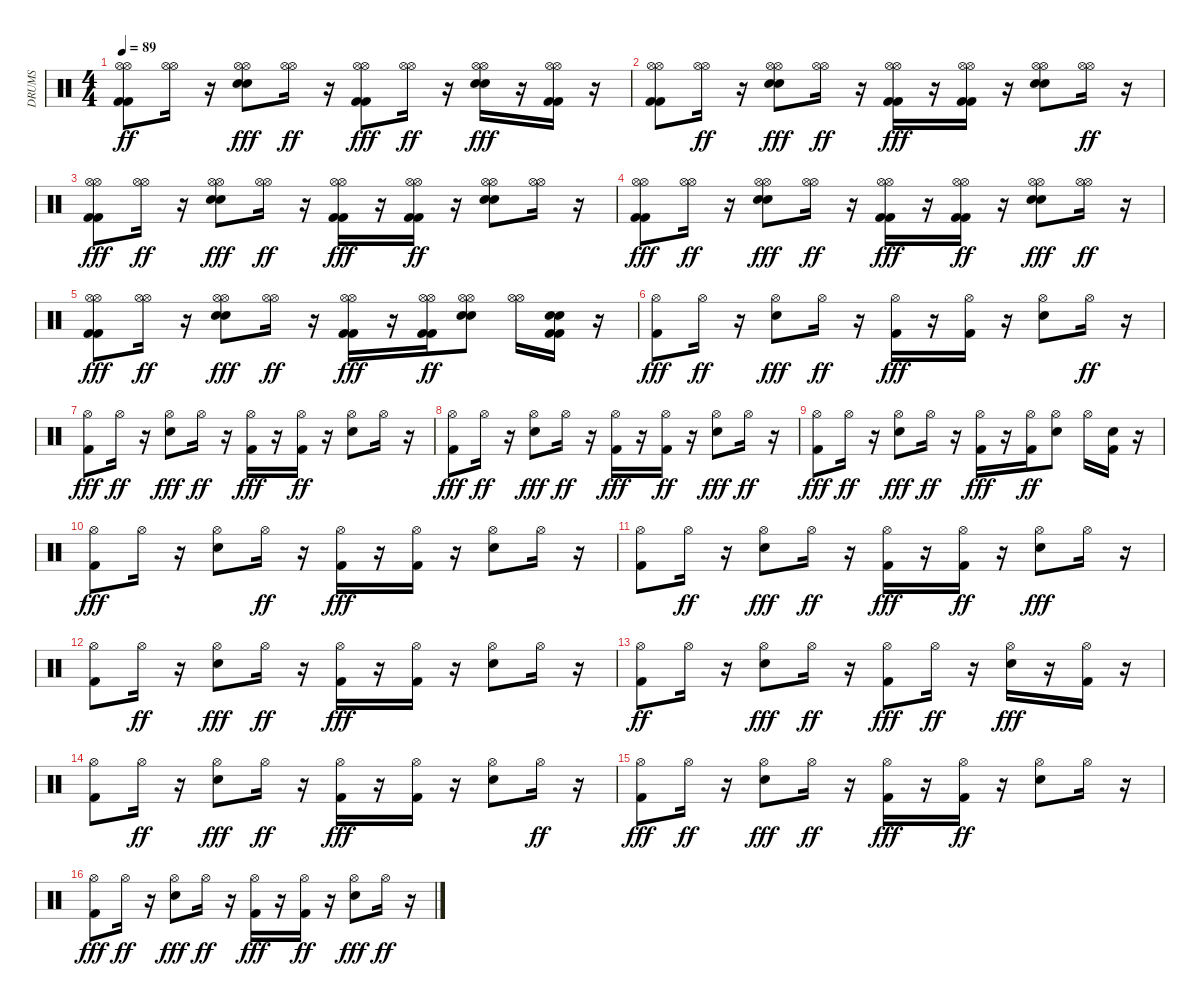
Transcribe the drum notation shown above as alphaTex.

\track ("DRUMS" "DRUMS") {instrument percussion}
\staff {score}
\articulation defaults
\ts (4 4)
\tempo 89
\clef neutral
\ks c
("Hi-Hat (open)" "Kick (hit) 2" "Hi-Hat (open)" "Kick (hit) 2").8{dy ff} ("Hi-Hat (open)" "Hi-Hat (open)").16 r.16 ("Electric Snare (hit)" "Hi-Hat (open)" "Electric Snare (hit)" "Hi-Hat (open)").8{dy fff} ("Hi-Hat (open)" "Hi-Hat (open)").16{dy ff} r.16 ("Hi-Hat (open)" "Kick (hit) 2" "Hi-Hat (open)" "Kick (hit) 2").8{dy fff} ("Hi-Hat (open)" "Hi-Hat (open)").16{dy ff} r.16 ("Electric Snare (hit)" "Hi-Hat (open)" "Electric Snare (hit)" "Hi-Hat (open)").16{dy fff} r.16 ("Hi-Hat (open)" "Kick (hit) 2" "Hi-Hat (open)" "Kick (hit) 2").16 r.16 |
("Hi-Hat (open)" "Kick (hit) 2" "Hi-Hat (open)" "Kick (hit) 2").8 ("Hi-Hat (open)" "Hi-Hat (open)").16{dy ff} r.16 ("Hi-Hat (open)" "Electric Snare (hit)" "Hi-Hat (open)" "Electric Snare (hit)").8{dy fff} ("Hi-Hat (open)" "Hi-Hat (open)").16{dy ff} r.16 ("Hi-Hat (open)" "Kick (hit) 2" "Hi-Hat (open)" "Kick (hit) 2").16{dy fff} r.16 ("Hi-Hat (open)" "Kick (hit) 2" "Hi-Hat (open)" "Kick (hit) 2").16 r.16 ("Hi-Hat (open)" "Electric Snare (hit)" "Hi-Hat (open)" "Electric Snare (hit)").8 ("Hi-Hat (open)" "Hi-Hat (open)").16{dy ff} r.16 |
("Hi-Hat (open)" "Kick (hit) 2" "Hi-Hat (open)" "Kick (hit) 2").8{dy fff} ("Hi-Hat (open)" "Hi-Hat (open)").16{dy ff} r.16 ("Electric Snare (hit)" "Hi-Hat (open)" "Electric Snare (hit)" "Hi-Hat (open)").8{dy fff} ("Hi-Hat (open)" "Hi-Hat (open)").16{dy ff} r.16 ("Hi-Hat (open)" "Kick (hit) 2" "Hi-Hat (open)" "Kick (hit) 2").16{dy fff} r.16 ("Hi-Hat (open)" "Kick (hit) 2" "Hi-Hat (open)" "Kick (hit) 2").16{dy ff} r.16 ("Electric Snare (hit)" "Hi-Hat (open)" "Electric Snare (hit)" "Hi-Hat (open)").8 ("Hi-Hat (open)" "Hi-Hat (open)").16 r.16 |
("Hi-Hat (open)" "Kick (hit) 2" "Hi-Hat (open)" "Kick (hit) 2").8{dy fff} ("Hi-Hat (open)" "Hi-Hat (open)").16{dy ff} r.16 ("Electric Snare (hit)" "Hi-Hat (open)" "Electric Snare (hit)" "Hi-Hat (open)").8{dy fff} ("Hi-Hat (open)" "Hi-Hat (open)").16{dy ff} r.16 ("Hi-Hat (open)" "Kick (hit) 2" "Hi-Hat (open)" "Kick (hit) 2").16{dy fff} r.16 ("Hi-Hat (open)" "Kick (hit) 2" "Hi-Hat (open)" "Kick (hit) 2").16{dy ff} r.16 ("Electric Snare (hit)" "Hi-Hat (open)" "Electric Snare (hit)" "Hi-Hat (open)").8{dy fff} ("Hi-Hat (open)" "Hi-Hat (open)").16{dy ff} r.16 |
("Hi-Hat (open)" "Kick (hit) 2" "Hi-Hat (open)" "Kick (hit) 2").8{dy fff} ("Hi-Hat (open)" "Hi-Hat (open)").16{dy ff} r.16 ("Electric Snare (hit)" "Hi-Hat (open)" "Electric Snare (hit)" "Hi-Hat (open)").8{dy fff} ("Hi-Hat (open)" "Hi-Hat (open)").16{dy ff} r.16 ("Hi-Hat (open)" "Kick (hit) 2" "Hi-Hat (open)" "Kick (hit) 2").16{dy fff} r.16 ("Kick (hit) 2" "Hi-Hat (open)" "Kick (hit) 2" "Hi-Hat (open)").16{dy ff} ("Electric Snare (hit)" "Hi-Hat (open)" "Electric Snare (hit)" "Hi-Hat (open)").8 ("Hi-Hat (open)" "Hi-Hat (open)").16 ("Kick (hit) 2" "Snare (hit) 2" "Kick (hit) 2" "Snare (hit) 2").16 r.16 |
("Hi-Hat (open)" "Kick (hit) 2").8{dy fff} "Hi-Hat (open)".16{dy ff} r.16 ("Hi-Hat (open)" "Electric Snare (hit)").8{dy fff} "Hi-Hat (open)".16{dy ff} r.16 ("Hi-Hat (open)" "Kick (hit) 2").16{dy fff} r.16 ("Hi-Hat (open)" "Kick (hit) 2").16 r.16 ("Hi-Hat (open)" "Electric Snare (hit)").8 "Hi-Hat (open)".16{dy ff} r.16 |
("Hi-Hat (open)" "Kick (hit) 2").8{dy fff} "Hi-Hat (open)".16{dy ff} r.16 ("Electric Snare (hit)" "Hi-Hat (open)").8{dy fff} "Hi-Hat (open)".16{dy ff} r.16 ("Hi-Hat (open)" "Kick (hit) 2").16{dy fff} r.16 ("Hi-Hat (open)" "Kick (hit) 2").16{dy ff} r.16 ("Electric Snare (hit)" "Hi-Hat (open)").8 "Hi-Hat (open)".16 r.16 |
("Hi-Hat (open)" "Kick (hit) 2").8{dy fff} "Hi-Hat (open)".16{dy ff} r.16 ("Electric Snare (hit)" "Hi-Hat (open)").8{dy fff} "Hi-Hat (open)".16{dy ff} r.16 ("Hi-Hat (open)" "Kick (hit) 2").16{dy fff} r.16 ("Hi-Hat (open)" "Kick (hit) 2").16{dy ff} r.16 ("Electric Snare (hit)" "Hi-Hat (open)").8{dy fff} "Hi-Hat (open)".16{dy ff} r.16 |
("Hi-Hat (open)" "Kick (hit) 2").8{dy fff} "Hi-Hat (open)".16{dy ff} r.16 ("Electric Snare (hit)" "Hi-Hat (open)").8{dy fff} "Hi-Hat (open)".16{dy ff} r.16 ("Hi-Hat (open)" "Kick (hit) 2").16{dy fff} r.16 ("Kick (hit) 2" "Hi-Hat (open)").16{dy ff} ("Electric Snare (hit)" "Hi-Hat (open)").8 "Hi-Hat (open)".16 ("Kick (hit) 2" "Snare (hit) 2").16 r.16 |
("Hi-Hat (open)" "Kick (hit) 2").8{dy fff} "Hi-Hat (open)".16 r.16 ("Electric Snare (hit)" "Hi-Hat (open)").8 "Hi-Hat (open)".16{dy ff} r.16 ("Hi-Hat (open)" "Kick (hit) 2").16{dy fff} r.16 ("Kick (hit) 2" "Hi-Hat (open)").16 r.16 ("Hi-Hat (open)" "Electric Snare (hit)").8 "Hi-Hat (open)".16 r.16 |
("Hi-Hat (open)" "Kick (hit) 2").8 "Hi-Hat (open)".16{dy ff} r.16 ("Hi-Hat (open)" "Electric Snare (hit)").8{dy fff} "Hi-Hat (open)".16{dy ff} r.16 ("Hi-Hat (open)" "Kick (hit) 2").16{dy fff} r.16 ("Kick (hit) 2" "Hi-Hat (open)").16{dy ff} r.16 ("Electric Snare (hit)" "Hi-Hat (open)").8{dy fff} "Hi-Hat (open)".16 r.16 |
("Hi-Hat (open)" "Kick (hit) 2").8 "Hi-Hat (open)".16{dy ff} r.16 ("Hi-Hat (open)" "Electric Snare (hit)").8{dy fff} "Hi-Hat (open)".16{dy ff} r.16 ("Hi-Hat (open)" "Kick (hit) 2").16{dy fff} r.16 ("Kick (hit) 2" "Hi-Hat (open)").16 r.16 ("Hi-Hat (open)" "Electric Snare (hit)").8 "Hi-Hat (open)".16 r.16 |
("Hi-Hat (open)" "Kick (hit) 2").8{dy ff} "Hi-Hat (open)".16 r.16 ("Electric Snare (hit)" "Hi-Hat (open)").8{dy fff} "Hi-Hat (open)".16{dy ff} r.16 ("Hi-Hat (open)" "Kick (hit) 2").8{dy fff} "Hi-Hat (open)".16{dy ff} r.16 ("Electric Snare (hit)" "Hi-Hat (open)").16{dy fff} r.16 ("Hi-Hat (open)" "Kick (hit) 2").16 r.16 |
("Hi-Hat (open)" "Kick (hit) 2").8 "Hi-Hat (open)".16{dy ff} r.16 ("Hi-Hat (open)" "Electric Snare (hit)").8{dy fff} "Hi-Hat (open)".16{dy ff} r.16 ("Hi-Hat (open)" "Kick (hit) 2").16{dy fff} r.16 ("Hi-Hat (open)" "Kick (hit) 2").16 r.16 ("Hi-Hat (open)" "Electric Snare (hit)").8 "Hi-Hat (open)".16{dy ff} r.16 |
("Hi-Hat (open)" "Kick (hit) 2").8{dy fff} "Hi-Hat (open)".16{dy ff} r.16 ("Electric Snare (hit)" "Hi-Hat (open)").8{dy fff} "Hi-Hat (open)".16{dy ff} r.16 ("Hi-Hat (open)" "Kick (hit) 2").16{dy fff} r.16 ("Hi-Hat (open)" "Kick (hit) 2").16{dy ff} r.16 ("Electric Snare (hit)" "Hi-Hat (open)").8 "Hi-Hat (open)".16 r.16 |
("Hi-Hat (open)" "Kick (hit) 2").8{dy fff} "Hi-Hat (open)".16{dy ff} r.16 ("Electric Snare (hit)" "Hi-Hat (open)").8{dy fff} "Hi-Hat (open)".16{dy ff} r.16 ("Hi-Hat (open)" "Kick (hit) 2").16{dy fff} r.16 ("Hi-Hat (open)" "Kick (hit) 2").16{dy ff} r.16 ("Electric Snare (hit)" "Hi-Hat (open)").8{dy fff} "Hi-Hat (open)".16{dy ff} r.16
